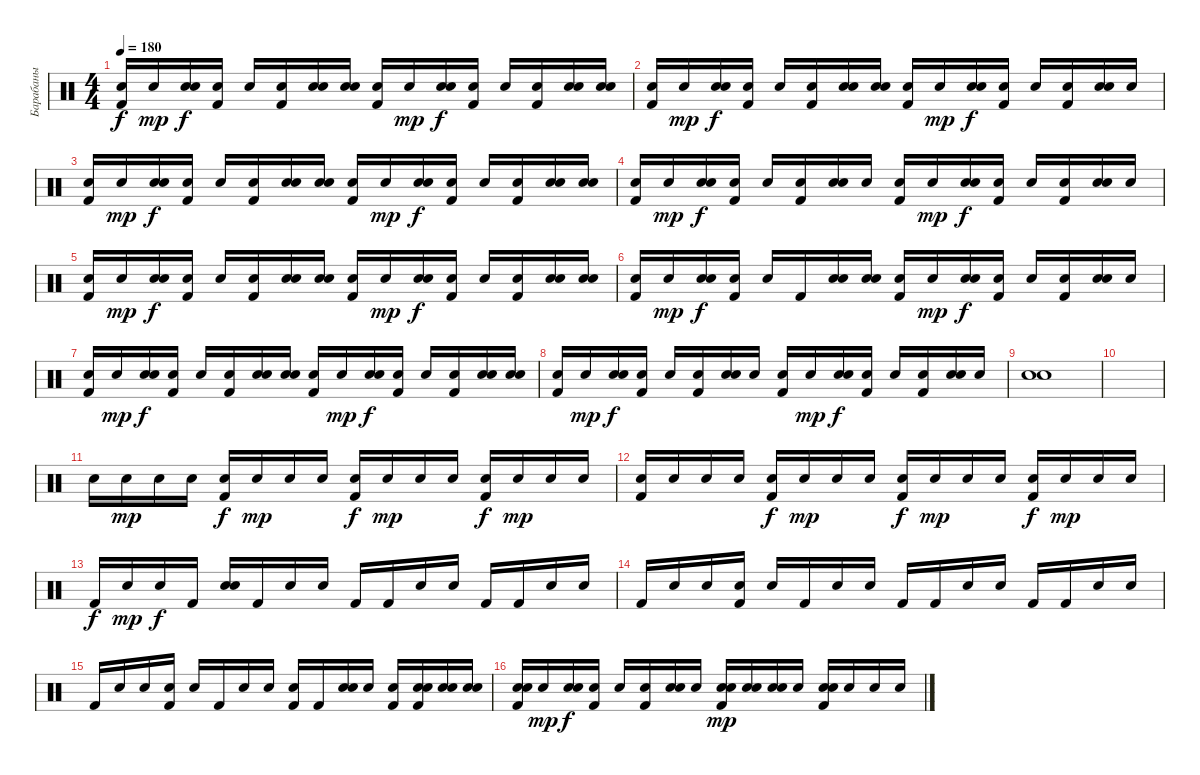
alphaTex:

\track ("Барабаны" "Барабаны") {instrument percussion}
\staff {score}
\articulation defaults
\ts (4 4)
\tempo 180
\clef neutral
\ks c
("Snare (hit)" "Kick (hit) 2").16{dy f} "Snare (hit)".16{dy mp} ("Snare (hit)" "Snare (hit) 2").16{dy f} ("Snare (hit)" "Kick (hit) 2").16 "Snare (hit)".16 ("Snare (hit)" "Kick (hit) 2").16 ("Snare (hit)" "Snare (hit) 2").16 ("Snare (hit)" "Snare (hit)").16 ("Snare (hit)" "Kick (hit) 2").16 "Snare (hit)".16{dy mp} ("Snare (hit)" "Snare (hit) 2").16{dy f} ("Snare (hit)" "Kick (hit) 2").16 "Snare (hit)".16 ("Snare (hit)" "Kick (hit) 2").16 ("Snare (hit)" "Snare (hit) 2").16 ("Snare (hit)" "Snare (hit)").16 |
("Snare (hit)" "Kick (hit) 2").16 "Snare (hit)".16{dy mp} ("Snare (hit)" "Snare (hit) 2").16{dy f} ("Snare (hit)" "Kick (hit) 2").16 "Snare (hit)".16 ("Snare (hit)" "Kick (hit) 2").16 ("Snare (hit)" "Snare (hit) 2").16 ("Snare (hit)" "Snare (hit)").16 ("Snare (hit)" "Kick (hit) 2").16 "Snare (hit)".16{dy mp} ("Snare (hit)" "Snare (hit) 2").16{dy f} ("Snare (hit)" "Kick (hit) 2").16 "Snare (hit)".16 ("Snare (hit)" "Kick (hit) 2").16 ("Snare (hit)" "Snare (hit) 2").16 "Snare (hit)".16 |
("Snare (hit)" "Kick (hit) 2").16 "Snare (hit)".16{dy mp} ("Snare (hit)" "Snare (hit) 2").16{dy f} ("Snare (hit)" "Kick (hit) 2").16 "Snare (hit)".16 ("Snare (hit)" "Kick (hit) 2").16 ("Snare (hit)" "Snare (hit) 2").16 ("Snare (hit)" "Snare (hit)").16 ("Snare (hit)" "Kick (hit) 2").16 "Snare (hit)".16{dy mp} ("Snare (hit)" "Snare (hit) 2").16{dy f} ("Snare (hit)" "Kick (hit) 2").16 "Snare (hit)".16 ("Snare (hit)" "Kick (hit) 2").16 ("Snare (hit)" "Snare (hit) 2").16 ("Snare (hit)" "Snare (hit)").16 |
("Snare (hit)" "Kick (hit) 2").16 "Snare (hit)".16{dy mp} ("Snare (hit)" "Snare (hit) 2").16{dy f} ("Snare (hit)" "Kick (hit) 2").16 "Snare (hit)".16 ("Snare (hit)" "Kick (hit) 2").16 ("Snare (hit)" "Snare (hit) 2").16 "Snare (hit)".16 ("Snare (hit)" "Kick (hit) 2").16 "Snare (hit)".16{dy mp} ("Snare (hit)" "Snare (hit) 2").16{dy f} ("Snare (hit)" "Kick (hit) 2").16 "Snare (hit)".16 ("Snare (hit)" "Kick (hit) 2").16 ("Snare (hit)" "Snare (hit) 2").16 "Snare (hit)".16 |
("Snare (hit)" "Kick (hit) 2").16 "Snare (hit)".16{dy mp} ("Snare (hit)" "Snare (hit) 2").16{dy f} ("Snare (hit)" "Kick (hit) 2").16 "Snare (hit)".16 ("Snare (hit)" "Kick (hit) 2").16 ("Snare (hit)" "Snare (hit) 2").16 ("Snare (hit)" "Snare (hit)").16 ("Snare (hit)" "Kick (hit) 2").16 "Snare (hit)".16{dy mp} ("Snare (hit)" "Snare (hit) 2").16{dy f} ("Snare (hit)" "Kick (hit) 2").16 "Snare (hit)".16 ("Snare (hit)" "Kick (hit) 2").16 ("Snare (hit)" "Snare (hit) 2").16 ("Snare (hit)" "Snare (hit)").16 |
("Snare (hit)" "Kick (hit) 2").16 "Snare (hit)".16{dy mp} ("Snare (hit)" "Snare (hit) 2").16{dy f} ("Snare (hit)" "Kick (hit) 2").16 "Snare (hit)".16 "Kick (hit) 2".16 ("Snare (hit)" "Snare (hit) 2").16 ("Snare (hit)" "Snare (hit)").16 ("Snare (hit)" "Kick (hit) 2").16 "Snare (hit)".16{dy mp} ("Snare (hit)" "Snare (hit) 2").16{dy f} ("Snare (hit)" "Kick (hit) 2").16 "Snare (hit)".16 ("Snare (hit)" "Kick (hit) 2").16 ("Snare (hit)" "Snare (hit) 2").16 "Snare (hit)".16 |
("Snare (hit)" "Kick (hit) 2").16 "Snare (hit)".16{dy mp} ("Snare (hit)" "Snare (hit) 2").16{dy f} ("Snare (hit)" "Kick (hit) 2").16 "Snare (hit)".16 ("Snare (hit)" "Kick (hit) 2").16 ("Snare (hit)" "Snare (hit) 2").16 ("Snare (hit)" "Snare (hit)").16 ("Snare (hit)" "Kick (hit) 2").16 "Snare (hit)".16{dy mp} ("Snare (hit)" "Snare (hit) 2").16{dy f} ("Snare (hit)" "Kick (hit) 2").16 "Snare (hit)".16 ("Snare (hit)" "Kick (hit) 2").16 ("Snare (hit)" "Snare (hit) 2").16 ("Snare (hit)" "Snare (hit)").16 |
("Snare (hit)" "Kick (hit) 2").16 "Snare (hit)".16{dy mp} ("Snare (hit)" "Snare (hit) 2").16{dy f} ("Snare (hit)" "Kick (hit) 2").16 "Snare (hit)".16 ("Snare (hit)" "Kick (hit) 2").16 ("Snare (hit)" "Snare (hit) 2").16 "Snare (hit)".16 ("Snare (hit)" "Kick (hit) 2").16 "Snare (hit)".16{dy mp} ("Snare (hit)" "Snare (hit) 2").16{dy f} ("Snare (hit)" "Kick (hit) 2").16 "Snare (hit)".16 ("Snare (hit)" "Kick (hit) 2").16 ("Snare (hit)" "Snare (hit) 2").16 "Snare (hit)".16 |
("Snare (hit)" "Snare (hit)").1 |
|
"Snare (hit) 2".16 "Snare (hit) 2".16{dy mp} "Snare (hit) 2".16 "Snare (hit) 2".16 ("Snare (hit) 2" "Kick (hit) 2").16{dy f} "Snare (hit) 2".16{dy mp} "Snare (hit) 2".16 "Snare (hit) 2".16 ("Snare (hit) 2" "Kick (hit) 2").16{dy f} "Snare (hit) 2".16{dy mp} "Snare (hit) 2".16 "Snare (hit) 2".16 ("Snare (hit) 2" "Kick (hit) 2").16{dy f} "Snare (hit) 2".16{dy mp} "Snare (hit) 2".16 "Snare (hit) 2".16 |
("Snare (hit) 2" "Kick (hit) 2").16 "Snare (hit) 2".16 "Snare (hit) 2".16 "Snare (hit) 2".16 ("Snare (hit) 2" "Kick (hit) 2").16{dy f} "Snare (hit) 2".16{dy mp} "Snare (hit) 2".16 "Snare (hit) 2".16 ("Snare (hit) 2" "Kick (hit) 2").16{dy f} "Snare (hit) 2".16{dy mp} "Snare (hit) 2".16 "Snare (hit) 2".16 ("Snare (hit) 2" "Kick (hit) 2").16{dy f} "Snare (hit) 2".16{dy mp} "Snare (hit) 2".16 "Snare (hit) 2".16 |
"Kick (hit) 2".16{dy f} "Snare (hit)".16{dy mp} "Snare (hit) 2".16{dy f} "Kick (hit) 2".16 ("Snare (hit)" "Snare (hit)").16 "Kick (hit) 2".16 "Snare (hit) 2".16 "Snare (hit)".16 "Kick (hit) 2".16 "Kick (hit) 2".16 "Snare (hit) 2".16 "Snare (hit)".16 "Kick (hit) 2".16 "Kick (hit) 2".16 "Snare (hit) 2".16 "Snare (hit)".16 |
"Kick (hit) 2".16 "Snare (hit)".16 "Snare (hit) 2".16 ("Snare (hit)" "Kick (hit) 2").16 "Snare (hit)".16 "Kick (hit) 2".16 "Snare (hit) 2".16 "Snare (hit)".16 "Kick (hit) 2".16 "Kick (hit) 2".16 "Snare (hit) 2".16 "Snare (hit)".16 "Kick (hit) 2".16 "Kick (hit) 2".16 "Snare (hit) 2".16 "Snare (hit)".16 |
"Kick (hit) 2".16 "Snare (hit)".16 "Snare (hit) 2".16 ("Snare (hit)" "Kick (hit) 2").16 "Snare (hit)".16 "Kick (hit) 2".16 "Snare (hit) 2".16 "Snare (hit)".16 ("Snare (hit)" "Kick (hit) 2").16 "Kick (hit) 2".16 ("Snare (hit)" "Snare (hit) 2").16 "Snare (hit)".16 ("Snare (hit)" "Kick (hit) 2").16 ("Snare (hit)" "Snare (hit)" "Kick (hit) 2").16 ("Snare (hit)" "Snare (hit) 2").16 ("Snare (hit)" "Snare (hit)").16 |
("Snare (hit)" "Snare (hit)" "Kick (hit) 2").16 "Snare (hit)".16{dy mp} ("Snare (hit)" "Snare (hit) 2").16{dy f} ("Snare (hit)" "Kick (hit) 2").16 "Snare (hit)".16 ("Snare (hit)" "Kick (hit) 2").16 ("Snare (hit)" "Snare (hit) 2").16 "Snare (hit)".16 ("Snare (hit)" "Snare (hit) 2" "Kick (hit) 2").16{dy mp} ("Snare (hit)" "Snare (hit) 2").16 ("Snare (hit)" "Snare (hit) 2").16 "Snare (hit) 2".16 ("Snare (hit)" "Snare (hit) 2" "Kick (hit) 2").16 "Snare (hit) 2".16 "Snare (hit) 2".16 "Snare (hit) 2".16
